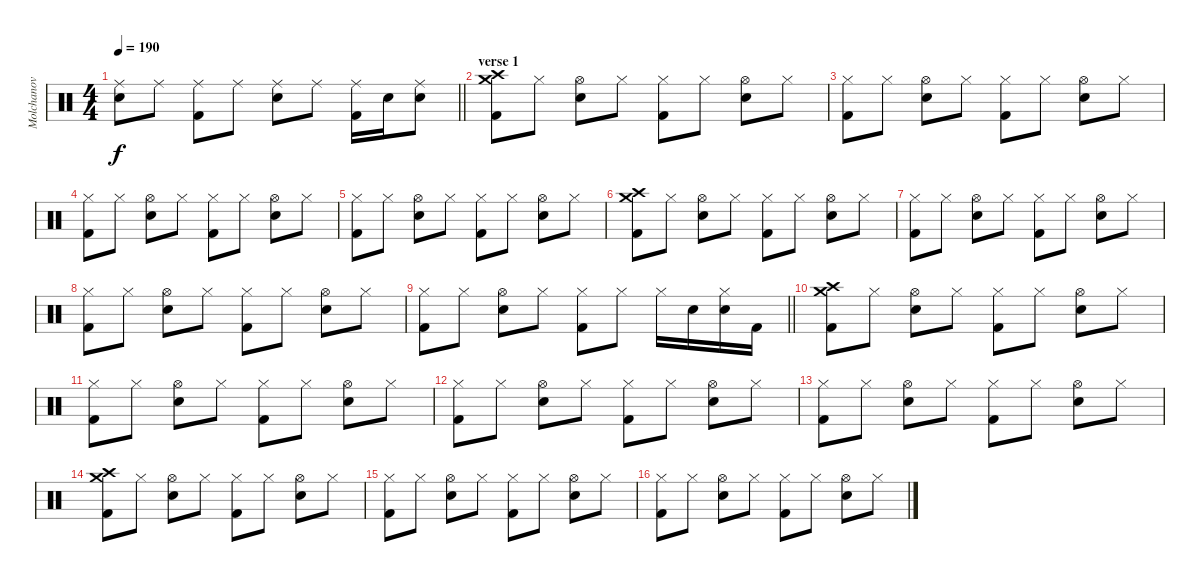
\track ("Molchanov" "Molchanov") {instrument percussion}
\staff {score}
\articulation defaults
\ts (4 4)
\tempo 190
\clef neutral
\barLineRight lightlight
\ks c
("Ride (middle)" "Snare (hit) 2").8{dy f} "Ride (middle)".8 ("Ride (middle)" "Kick (hit) 2").8 "Ride (middle)".8 ("Ride (middle)" "Snare (hit) 2").8 "Ride (middle)".8 ("Ride (middle)" "Kick (hit) 2").16 "Snare (hit) 2".16 ("Ride (middle)" "Snare (hit) 2").8 |
\section ("" "verse 1")
("Crash high (hit)" "Crash medium (hit)" "Kick (hit) 2").8 "Hi-Hat (closed)".8 ("Hi-Hat (open)" "Snare (hit) 2").8 "Hi-Hat (closed)".8 ("Hi-Hat (closed)" "Kick (hit) 2").8 "Hi-Hat (closed)".8 ("Hi-Hat (open)" "Snare (hit) 2").8 "Hi-Hat (closed)".8 |
("Hi-Hat (closed)" "Kick (hit) 2").8 "Hi-Hat (closed)".8 ("Hi-Hat (open)" "Snare (hit) 2").8 "Hi-Hat (closed)".8 ("Hi-Hat (closed)" "Kick (hit) 2").8 "Hi-Hat (closed)".8 ("Hi-Hat (open)" "Snare (hit) 2").8 "Hi-Hat (closed)".8 |
("Hi-Hat (closed)" "Kick (hit) 2").8 "Hi-Hat (closed)".8 ("Hi-Hat (open)" "Snare (hit) 2").8 "Hi-Hat (closed)".8 ("Hi-Hat (closed)" "Kick (hit) 2").8 "Hi-Hat (closed)".8 ("Hi-Hat (open)" "Snare (hit) 2").8 "Hi-Hat (closed)".8 |
("Hi-Hat (closed)" "Kick (hit) 2").8 "Hi-Hat (closed)".8 ("Hi-Hat (open)" "Snare (hit) 2").8 "Hi-Hat (closed)".8 ("Hi-Hat (closed)" "Kick (hit) 2").8 "Hi-Hat (closed)".8 ("Hi-Hat (open)" "Snare (hit) 2").8 "Hi-Hat (closed)".8 |
("Crash high (hit)" "Crash medium (hit)" "Kick (hit) 2").8 "Hi-Hat (closed)".8 ("Hi-Hat (open)" "Snare (hit) 2").8 "Hi-Hat (closed)".8 ("Hi-Hat (closed)" "Kick (hit) 2").8 "Hi-Hat (closed)".8 ("Hi-Hat (open)" "Snare (hit) 2").8 "Hi-Hat (closed)".8 |
("Hi-Hat (closed)" "Kick (hit) 2").8 "Hi-Hat (closed)".8 ("Hi-Hat (open)" "Snare (hit) 2").8 "Hi-Hat (closed)".8 ("Hi-Hat (closed)" "Kick (hit) 2").8 "Hi-Hat (closed)".8 ("Hi-Hat (open)" "Snare (hit) 2").8 "Hi-Hat (closed)".8 |
("Hi-Hat (closed)" "Kick (hit) 2").8 "Hi-Hat (closed)".8 ("Hi-Hat (open)" "Snare (hit) 2").8 "Hi-Hat (closed)".8 ("Hi-Hat (closed)" "Kick (hit) 2").8 "Hi-Hat (closed)".8 ("Hi-Hat (open)" "Snare (hit) 2").8 "Hi-Hat (closed)".8 |
\barLineRight lightlight
("Hi-Hat (closed)" "Kick (hit) 2").8 "Hi-Hat (closed)".8 ("Hi-Hat (open)" "Snare (hit) 2").8 "Hi-Hat (closed)".8 ("Hi-Hat (closed)" "Kick (hit) 2").8 "Hi-Hat (closed)".8 "Hi-Hat (closed)".16 "Snare (hit) 2".16 ("Hi-Hat (closed)" "Snare (hit) 2").16 "Kick (hit) 2".16 |
("Crash high (hit)" "Crash medium (hit)" "Kick (hit) 2").8 "Hi-Hat (closed)".8 ("Hi-Hat (open)" "Snare (hit) 2").8 "Hi-Hat (closed)".8 ("Hi-Hat (closed)" "Kick (hit) 2").8 "Hi-Hat (closed)".8 ("Hi-Hat (open)" "Snare (hit) 2").8 "Hi-Hat (closed)".8 |
("Hi-Hat (closed)" "Kick (hit) 2").8 "Hi-Hat (closed)".8 ("Hi-Hat (open)" "Snare (hit) 2").8 "Hi-Hat (closed)".8 ("Hi-Hat (closed)" "Kick (hit) 2").8 "Hi-Hat (closed)".8 ("Hi-Hat (open)" "Snare (hit) 2").8 "Hi-Hat (closed)".8 |
("Hi-Hat (closed)" "Kick (hit) 2").8 "Hi-Hat (closed)".8 ("Hi-Hat (open)" "Snare (hit) 2").8 "Hi-Hat (closed)".8 ("Hi-Hat (closed)" "Kick (hit) 2").8 "Hi-Hat (closed)".8 ("Hi-Hat (open)" "Snare (hit) 2").8 "Hi-Hat (closed)".8 |
("Hi-Hat (closed)" "Kick (hit) 2").8 "Hi-Hat (closed)".8 ("Hi-Hat (open)" "Snare (hit) 2").8 "Hi-Hat (closed)".8 ("Hi-Hat (closed)" "Kick (hit) 2").8 "Hi-Hat (closed)".8 ("Hi-Hat (open)" "Snare (hit) 2").8 "Hi-Hat (closed)".8 |
("Crash high (hit)" "Crash medium (hit)" "Kick (hit) 2").8 "Hi-Hat (closed)".8 ("Hi-Hat (open)" "Snare (hit) 2").8 "Hi-Hat (closed)".8 ("Hi-Hat (closed)" "Kick (hit) 2").8 "Hi-Hat (closed)".8 ("Hi-Hat (open)" "Snare (hit) 2").8 "Hi-Hat (closed)".8 |
("Hi-Hat (closed)" "Kick (hit) 2").8 "Hi-Hat (closed)".8 ("Hi-Hat (open)" "Snare (hit) 2").8 "Hi-Hat (closed)".8 ("Hi-Hat (closed)" "Kick (hit) 2").8 "Hi-Hat (closed)".8 ("Hi-Hat (open)" "Snare (hit) 2").8 "Hi-Hat (closed)".8 |
("Hi-Hat (closed)" "Kick (hit) 2").8 "Hi-Hat (closed)".8 ("Hi-Hat (open)" "Snare (hit) 2").8 "Hi-Hat (closed)".8 ("Hi-Hat (closed)" "Kick (hit) 2").8 "Hi-Hat (closed)".8 ("Hi-Hat (open)" "Snare (hit) 2").8 "Hi-Hat (closed)".8
